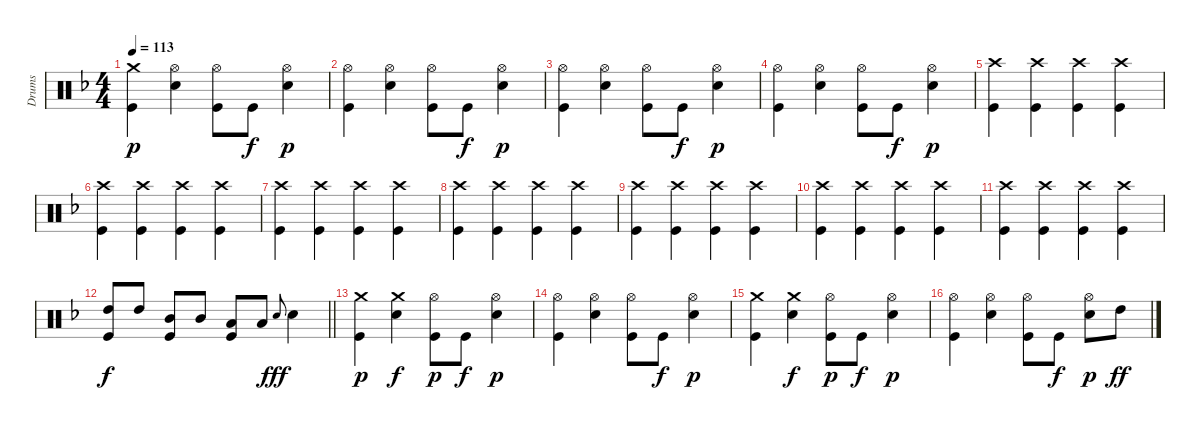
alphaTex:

\track ("Drums" "Drums") {instrument percussion}
\staff {score}
\articulation defaults
\ts (4 4)
\tempo 113
\clef neutral
\ks dminor
("Kick (hit)" "Crash medium (hit)").4{dy p} ("Hi-Hat (open)" "Electric Snare (hit)").4 ("Kick (hit)" "Hi-Hat (open)").8 "Kick (hit)".8{dy f} ("Electric Snare (hit)" "Hi-Hat (open)").4{dy p} |
("Kick (hit)" "Hi-Hat (open)").4 ("Hi-Hat (open)" "Electric Snare (hit)").4 ("Kick (hit)" "Hi-Hat (open)").8 "Kick (hit)".8{dy f} ("Electric Snare (hit)" "Hi-Hat (open)").4{dy p} |
("Kick (hit)" "Hi-Hat (open)").4 ("Hi-Hat (open)" "Electric Snare (hit)").4 ("Kick (hit)" "Hi-Hat (open)").8 "Kick (hit)".8{dy f} ("Electric Snare (hit)" "Hi-Hat (open)").4{dy p} |
("Kick (hit)" "Hi-Hat (open)").4 ("Hi-Hat (open)" "Electric Snare (hit)").4 ("Kick (hit)" "Hi-Hat (open)").8 "Kick (hit)".8{dy f} ("Electric Snare (hit)" "Hi-Hat (open)").4{dy p} |
("Kick (hit)" "Crash high (hit)").4 ("Kick (hit)" "Crash high (hit)").4 ("Kick (hit)" "Crash high (hit)").4 ("Kick (hit)" "Crash high (hit)").4 |
("Kick (hit)" "Crash high (hit)").4 ("Kick (hit)" "Crash high (hit)").4 ("Kick (hit)" "Crash high (hit)").4 ("Kick (hit)" "Crash high (hit)").4 |
("Kick (hit)" "Crash high (hit)").4 ("Kick (hit)" "Crash high (hit)").4 ("Kick (hit)" "Crash high (hit)").4 ("Kick (hit)" "Crash high (hit)").4 |
("Kick (hit)" "Crash high (hit)").4 ("Kick (hit)" "Crash high (hit)").4 ("Kick (hit)" "Crash high (hit)").4 ("Kick (hit)" "Crash high (hit)").4 |
("Kick (hit)" "Crash high (hit)").4 ("Kick (hit)" "Crash high (hit)").4 ("Kick (hit)" "Crash high (hit)").4 ("Kick (hit)" "Crash high (hit)").4 |
("Kick (hit)" "Crash high (hit)").4 ("Kick (hit)" "Crash high (hit)").4 ("Kick (hit)" "Crash high (hit)").4 ("Kick (hit)" "Crash high (hit)").4 |
("Kick (hit)" "Crash high (hit)").4 ("Kick (hit)" "Crash high (hit)").4 ("Kick (hit)" "Crash high (hit)").4 ("Kick (hit)" "Crash high (hit)").4 |
\barLineRight lightlight
("High Tom (hit)" "Kick (hit)").8{dy f} "High Tom (hit)".8 ("Mid Tom (hit)" "Kick (hit)").8 "Mid Tom (hit)".8 ("Low Tom (hit)" "Kick (hit)").8 "Low Tom (hit)".8 "Electric Snare (hit)".8{gr onbeat dy fff} "Electric Snare (hit)".4 |
\section ("" "")
("Kick (hit)" "Crash medium (hit)").4{dy p} ("Crash medium (hit)" "Electric Snare (hit)").4{dy f} ("Kick (hit)" "Hi-Hat (open)").8{dy p} "Kick (hit)".8{dy f} ("Electric Snare (hit)" "Hi-Hat (open)").4{dy p} |
("Kick (hit)" "Hi-Hat (open)").4 ("Hi-Hat (open)" "Electric Snare (hit)").4 ("Kick (hit)" "Hi-Hat (open)").8 "Kick (hit)".8{dy f} ("Electric Snare (hit)" "Hi-Hat (open)").4{dy p} |
("Kick (hit)" "Crash medium (hit)").4 ("Crash medium (hit)" "Electric Snare (hit)").4{dy f} ("Kick (hit)" "Hi-Hat (open)").8{dy p} "Kick (hit)".8{dy f} ("Electric Snare (hit)" "Hi-Hat (open)").4{dy p} |
("Kick (hit)" "Hi-Hat (open)").4 ("Hi-Hat (open)" "Electric Snare (hit)").4 ("Kick (hit)" "Hi-Hat (open)").8 "Kick (hit)".8{dy f} ("Electric Snare (hit)" "Hi-Hat (open)").8{dy p} "High Tom (hit)".8{dy ff}
